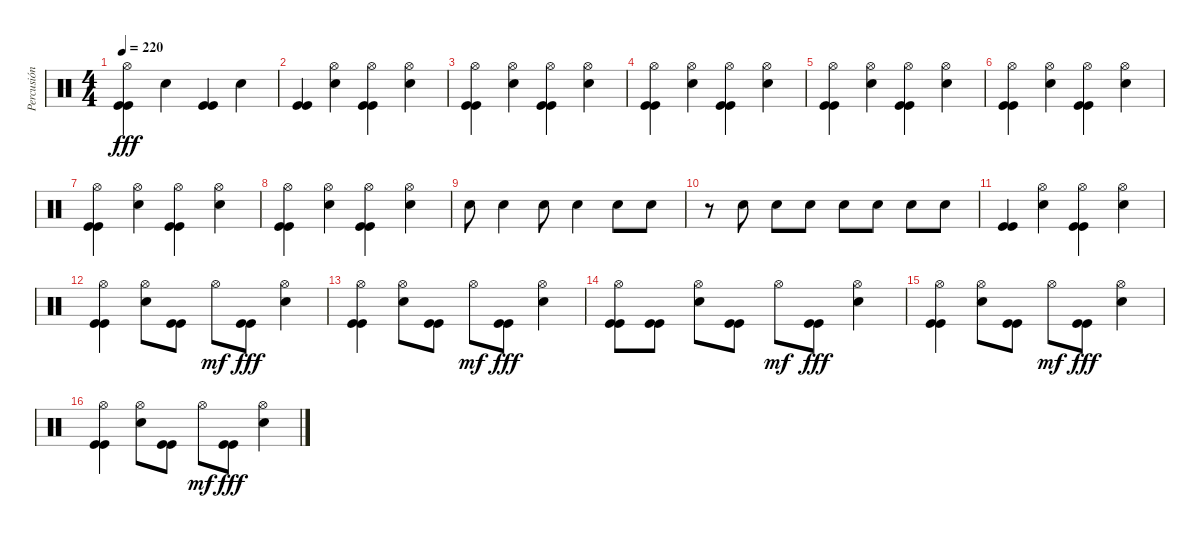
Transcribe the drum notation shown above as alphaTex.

\track ("Percusión" "Percusión") {instrument percussion}
\staff {score}
\articulation defaults
\ts (4 4)
\tempo 220
\clef neutral
\ks c
("Hi-Hat (open)" "Kick (hit)" "Kick (hit)").4{dy fff} "Snare (hit) 2".4 ("Kick (hit)" "Kick (hit)").4 "Snare (hit) 2".4 |
("Kick (hit)" "Kick (hit)").4 ("Hi-Hat (open)" "Snare (hit) 2").4 ("Hi-Hat (open)" "Kick (hit)" "Kick (hit)").4 ("Hi-Hat (open)" "Snare (hit) 2").4 |
("Hi-Hat (open)" "Kick (hit)" "Kick (hit)").4 ("Hi-Hat (open)" "Snare (hit) 2").4 ("Hi-Hat (open)" "Kick (hit)" "Kick (hit)").4 ("Hi-Hat (open)" "Snare (hit) 2").4 |
("Hi-Hat (open)" "Kick (hit)" "Kick (hit)").4 ("Hi-Hat (open)" "Snare (hit) 2").4 ("Hi-Hat (open)" "Kick (hit)" "Kick (hit)").4 ("Hi-Hat (open)" "Snare (hit) 2").4 |
("Hi-Hat (open)" "Kick (hit)" "Kick (hit)").4 ("Hi-Hat (open)" "Snare (hit) 2").4 ("Hi-Hat (open)" "Kick (hit)" "Kick (hit)").4 ("Hi-Hat (open)" "Snare (hit) 2").4 |
("Hi-Hat (open)" "Kick (hit)" "Kick (hit)").4 ("Hi-Hat (open)" "Snare (hit) 2").4 ("Hi-Hat (open)" "Kick (hit)" "Kick (hit)").4 ("Hi-Hat (open)" "Snare (hit) 2").4 |
("Hi-Hat (open)" "Kick (hit)" "Kick (hit)").4 ("Hi-Hat (open)" "Snare (hit) 2").4 ("Hi-Hat (open)" "Kick (hit)" "Kick (hit)").4 ("Hi-Hat (open)" "Snare (hit) 2").4 |
("Hi-Hat (open)" "Kick (hit)" "Kick (hit)").4 ("Hi-Hat (open)" "Snare (hit) 2").4 ("Hi-Hat (open)" "Kick (hit)" "Kick (hit)").4 ("Hi-Hat (open)" "Snare (hit) 2").4 |
"Snare (hit) 2".8 "Snare (hit) 2".4 "Snare (hit) 2".8 "Snare (hit) 2".4 "Snare (hit) 2".8 "Snare (hit) 2".8 |
r.8 "Snare (hit) 2".8 "Snare (hit) 2".8 "Snare (hit) 2".8 "Snare (hit) 2".8 "Snare (hit) 2".8 "Snare (hit) 2".8 "Snare (hit) 2".8 |
("Kick (hit)" "Kick (hit)").4 ("Hi-Hat (open)" "Snare (hit) 2").4 ("Hi-Hat (open)" "Kick (hit)" "Kick (hit)").4 ("Hi-Hat (open)" "Snare (hit) 2").4 |
("Hi-Hat (open)" "Kick (hit)" "Kick (hit)").4 ("Hi-Hat (open)" "Snare (hit) 2").8 ("Kick (hit)" "Kick (hit)").8 "Hi-Hat (open)".8{dy mf} ("Kick (hit)" "Kick (hit)").8{dy fff} ("Hi-Hat (open)" "Snare (hit) 2").4 |
("Hi-Hat (open)" "Kick (hit)" "Kick (hit)").4 ("Hi-Hat (open)" "Snare (hit) 2").8 ("Kick (hit)" "Kick (hit)").8 "Hi-Hat (open)".8{dy mf} ("Kick (hit)" "Kick (hit)").8{dy fff} ("Hi-Hat (open)" "Snare (hit) 2").4 |
("Hi-Hat (open)" "Kick (hit)" "Kick (hit)").8 ("Kick (hit)" "Kick (hit)").8 ("Hi-Hat (open)" "Snare (hit) 2").8 ("Kick (hit)" "Kick (hit)").8 "Hi-Hat (open)".8{dy mf} ("Kick (hit)" "Kick (hit)").8{dy fff} ("Hi-Hat (open)" "Snare (hit) 2").4 |
("Hi-Hat (open)" "Kick (hit)" "Kick (hit)").4 ("Hi-Hat (open)" "Snare (hit) 2").8 ("Kick (hit)" "Kick (hit)").8 "Hi-Hat (open)".8{dy mf} ("Kick (hit)" "Kick (hit)").8{dy fff} ("Hi-Hat (open)" "Snare (hit) 2").4 |
("Hi-Hat (open)" "Kick (hit)" "Kick (hit)").4 ("Hi-Hat (open)" "Snare (hit) 2").8 ("Kick (hit)" "Kick (hit)").8 "Hi-Hat (open)".8{dy mf} ("Kick (hit)" "Kick (hit)").8{dy fff} ("Hi-Hat (open)" "Snare (hit) 2").4
